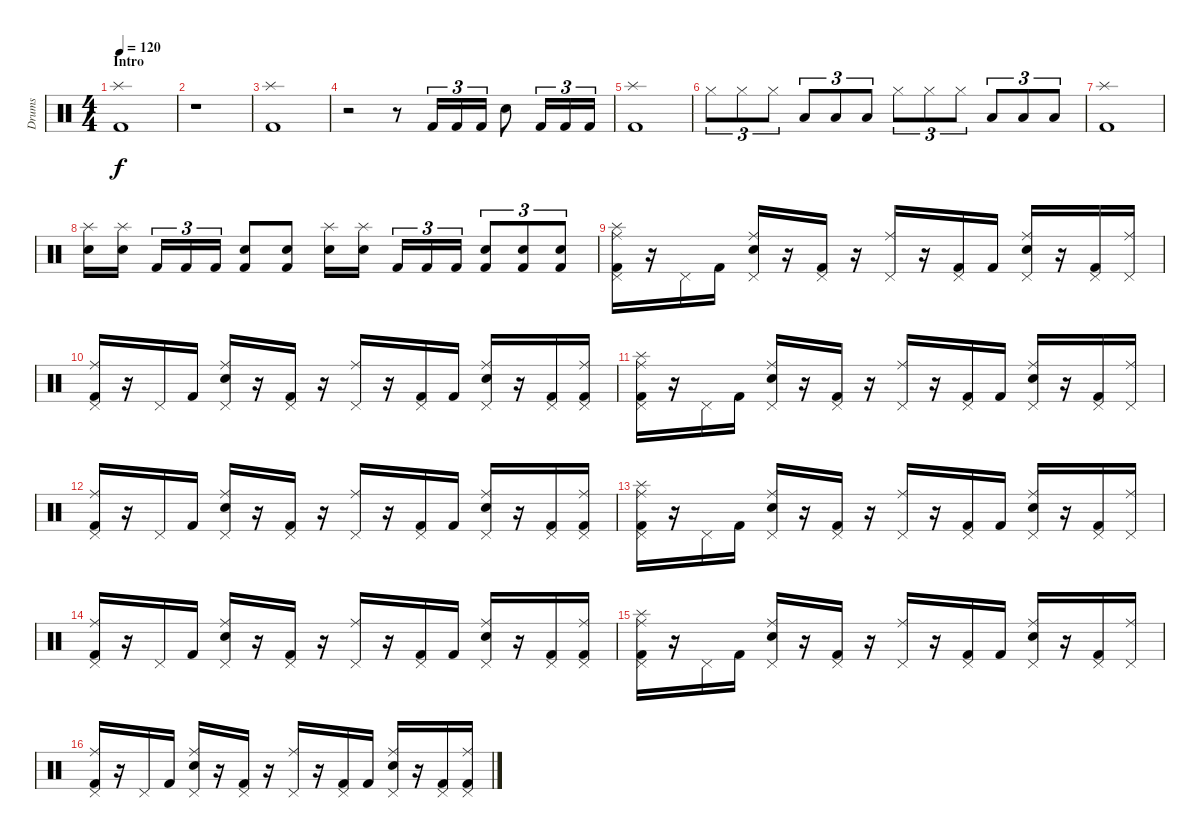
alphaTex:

\track ("Drums" "Drums") {instrument percussion}
\staff {score}
\articulation defaults
\ts (4 4)
\section ("" "Intro ")
\tempo 120
\clef neutral
\ks c
("Splash (hit)" "Kick (hit) 2").1{dy f} |
r.1 |
("Splash (hit)" "Kick (hit) 2").1 |
r.2 r.8 "Kick (hit) 2".16{tu (3 2)} "Kick (hit) 2".16{tu (3 2)} "Kick (hit) 2".16{tu (3 2)} "Snare (hit) 2".8 "Kick (hit) 2".16{tu (3 2)} "Kick (hit) 2".16{tu (3 2)} "Kick (hit) 2".16{tu (3 2)} |
("Splash (hit)" "Kick (hit) 2").1 |
"Hi-Hat (closed)".8{tu (3 2)} "Hi-Hat (closed)".8{tu (3 2)} "Hi-Hat (closed)".8{tu (3 2)} "Low Tom (hit)".8{tu (3 2)} "Low Tom (hit)".8{tu (3 2)} "Low Tom (hit)".8{tu (3 2)} "Hi-Hat (closed)".8{tu (3 2)} "Hi-Hat (closed)".8{tu (3 2)} "Hi-Hat (closed)".8{tu (3 2)} "Low Tom (hit)".8{tu (3 2)} "Low Tom (hit)".8{tu (3 2)} "Low Tom (hit)".8{tu (3 2)} |
("Splash (hit)" "Kick (hit) 2").1 |
("Snare (hit) 2" "Splash (hit)").16 ("Snare (hit) 2" "Splash (hit)").16 "Kick (hit) 2".16{tu (3 2)} "Kick (hit) 2".16{tu (3 2)} "Kick (hit) 2".16{tu (3 2)} ("Kick (hit) 2" "Snare (hit) 2").8 ("Kick (hit) 2" "Snare (hit) 2").8 ("Snare (hit) 2" "Splash (hit)").16 ("Snare (hit) 2" "Splash (hit)").16 "Kick (hit) 2".16{tu (3 2)} "Kick (hit) 2".16{tu (3 2)} "Kick (hit) 2".16{tu (3 2)} ("Kick (hit) 2" "Snare (hit) 2").8{tu (3 2)} ("Kick (hit) 2" "Snare (hit) 2").8{tu (3 2)} ("Kick (hit) 2" "Snare (hit) 2").8{tu (3 2)} |
("Kick (hit) 2" "Pedal Hi-Hat (hit)" "Splash (hit)" "Ride (middle)").16 r.16 "Pedal Hi-Hat (hit)".16 "Kick (hit) 2".16 ("Pedal Hi-Hat (hit)" "Snare (hit) 2" "Ride (middle)").16 r.16 ("Kick (hit) 2" "Pedal Hi-Hat (hit)").16 r.16 ("Pedal Hi-Hat (hit)" "Ride (middle)").16 r.16 ("Kick (hit) 2" "Pedal Hi-Hat (hit)").16 "Kick (hit) 2".16 ("Pedal Hi-Hat (hit)" "Snare (hit) 2" "Ride (middle)").16 r.16 ("Kick (hit) 2" "Pedal Hi-Hat (hit)").16 ("Pedal Hi-Hat (hit)" "Ride (middle)").16 |
("Kick (hit) 2" "Pedal Hi-Hat (hit)" "Ride (middle)").16 r.16 "Pedal Hi-Hat (hit)".16 "Kick (hit) 2".16 ("Pedal Hi-Hat (hit)" "Snare (hit) 2" "Ride (middle)").16 r.16 ("Kick (hit) 2" "Pedal Hi-Hat (hit)").16 r.16 ("Pedal Hi-Hat (hit)" "Ride (middle)").16 r.16 ("Kick (hit) 2" "Pedal Hi-Hat (hit)").16 "Kick (hit) 2".16 ("Pedal Hi-Hat (hit)" "Snare (hit) 2" "Ride (middle)").16 r.16 ("Kick (hit) 2" "Pedal Hi-Hat (hit)").16 ("Kick (hit) 2" "Pedal Hi-Hat (hit)" "Ride (middle)").16 |
("Kick (hit) 2" "Pedal Hi-Hat (hit)" "Splash (hit)" "Ride (middle)").16 r.16 "Pedal Hi-Hat (hit)".16 "Kick (hit) 2".16 ("Pedal Hi-Hat (hit)" "Snare (hit) 2" "Ride (middle)").16 r.16 ("Kick (hit) 2" "Pedal Hi-Hat (hit)").16 r.16 ("Pedal Hi-Hat (hit)" "Ride (middle)").16 r.16 ("Kick (hit) 2" "Pedal Hi-Hat (hit)").16 "Kick (hit) 2".16 ("Pedal Hi-Hat (hit)" "Snare (hit) 2" "Ride (middle)").16 r.16 ("Kick (hit) 2" "Pedal Hi-Hat (hit)").16 ("Pedal Hi-Hat (hit)" "Ride (middle)").16 |
("Kick (hit) 2" "Pedal Hi-Hat (hit)" "Ride (middle)").16 r.16 "Pedal Hi-Hat (hit)".16 "Kick (hit) 2".16 ("Pedal Hi-Hat (hit)" "Snare (hit) 2" "Ride (middle)").16 r.16 ("Kick (hit) 2" "Pedal Hi-Hat (hit)").16 r.16 ("Pedal Hi-Hat (hit)" "Ride (middle)").16 r.16 ("Kick (hit) 2" "Pedal Hi-Hat (hit)").16 "Kick (hit) 2".16 ("Pedal Hi-Hat (hit)" "Snare (hit) 2" "Ride (middle)").16 r.16 ("Kick (hit) 2" "Pedal Hi-Hat (hit)").16 ("Kick (hit) 2" "Pedal Hi-Hat (hit)" "Ride (middle)").16 |
("Kick (hit) 2" "Pedal Hi-Hat (hit)" "Splash (hit)" "Ride (middle)").16 r.16 "Pedal Hi-Hat (hit)".16 "Kick (hit) 2".16 ("Pedal Hi-Hat (hit)" "Snare (hit) 2" "Ride (middle)").16 r.16 ("Kick (hit) 2" "Pedal Hi-Hat (hit)").16 r.16 ("Pedal Hi-Hat (hit)" "Ride (middle)").16 r.16 ("Kick (hit) 2" "Pedal Hi-Hat (hit)").16 "Kick (hit) 2".16 ("Pedal Hi-Hat (hit)" "Snare (hit) 2" "Ride (middle)").16 r.16 ("Kick (hit) 2" "Pedal Hi-Hat (hit)").16 ("Pedal Hi-Hat (hit)" "Ride (middle)").16 |
("Kick (hit) 2" "Pedal Hi-Hat (hit)" "Ride (middle)").16 r.16 "Pedal Hi-Hat (hit)".16 "Kick (hit) 2".16 ("Pedal Hi-Hat (hit)" "Snare (hit) 2" "Ride (middle)").16 r.16 ("Kick (hit) 2" "Pedal Hi-Hat (hit)").16 r.16 ("Pedal Hi-Hat (hit)" "Ride (middle)").16 r.16 ("Kick (hit) 2" "Pedal Hi-Hat (hit)").16 "Kick (hit) 2".16 ("Pedal Hi-Hat (hit)" "Snare (hit) 2" "Ride (middle)").16 r.16 ("Kick (hit) 2" "Pedal Hi-Hat (hit)").16 ("Kick (hit) 2" "Pedal Hi-Hat (hit)" "Ride (middle)").16 |
("Kick (hit) 2" "Pedal Hi-Hat (hit)" "Splash (hit)" "Ride (middle)").16 r.16 "Pedal Hi-Hat (hit)".16 "Kick (hit) 2".16 ("Pedal Hi-Hat (hit)" "Snare (hit) 2" "Ride (middle)").16 r.16 ("Kick (hit) 2" "Pedal Hi-Hat (hit)").16 r.16 ("Pedal Hi-Hat (hit)" "Ride (middle)").16 r.16 ("Kick (hit) 2" "Pedal Hi-Hat (hit)").16 "Kick (hit) 2".16 ("Pedal Hi-Hat (hit)" "Snare (hit) 2" "Ride (middle)").16 r.16 ("Kick (hit) 2" "Pedal Hi-Hat (hit)").16 ("Pedal Hi-Hat (hit)" "Ride (middle)").16 |
("Kick (hit) 2" "Pedal Hi-Hat (hit)" "Ride (middle)").16 r.16 "Pedal Hi-Hat (hit)".16 "Kick (hit) 2".16 ("Pedal Hi-Hat (hit)" "Snare (hit) 2" "Ride (middle)").16 r.16 ("Kick (hit) 2" "Pedal Hi-Hat (hit)").16 r.16 ("Pedal Hi-Hat (hit)" "Ride (middle)").16 r.16 ("Kick (hit) 2" "Pedal Hi-Hat (hit)").16 "Kick (hit) 2".16 ("Pedal Hi-Hat (hit)" "Snare (hit) 2" "Ride (middle)").16 r.16 ("Kick (hit) 2" "Pedal Hi-Hat (hit)").16 ("Kick (hit) 2" "Pedal Hi-Hat (hit)" "Ride (middle)").16
